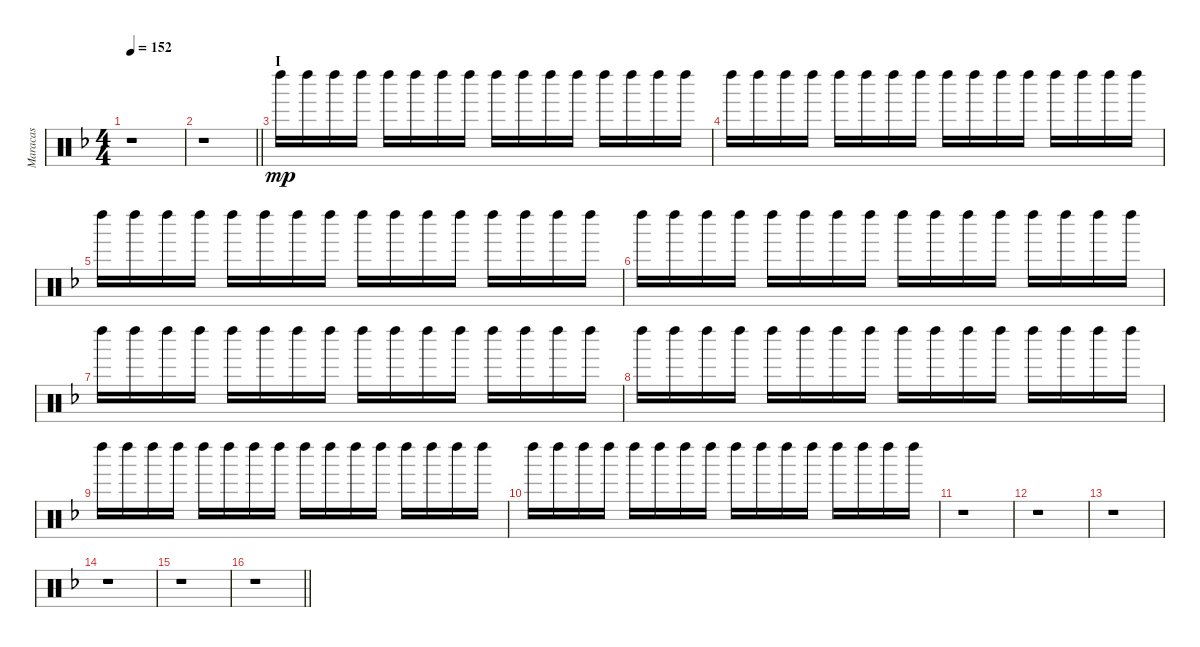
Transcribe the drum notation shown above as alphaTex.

\track ("Maracas" "Maracas") {instrument percussion}
\staff {score}
\articulation defaults
\ts (4 4)
\tempo 152
\clef neutral
\ks f
r.1{dy mp} |
\barLineRight lightlight
r.1 |
\section ("" "I")
"Left Maraca (hit)".16 "Left Maraca (hit)".16 "Left Maraca (hit)".16 "Left Maraca (hit)".16 "Left Maraca (hit)".16 "Left Maraca (hit)".16 "Left Maraca (hit)".16 "Left Maraca (hit)".16 "Left Maraca (hit)".16 "Left Maraca (hit)".16 "Left Maraca (hit)".16 "Left Maraca (hit)".16 "Left Maraca (hit)".16 "Left Maraca (hit)".16 "Left Maraca (hit)".16 "Left Maraca (hit)".16 |
"Left Maraca (hit)".16 "Left Maraca (hit)".16 "Left Maraca (hit)".16 "Left Maraca (hit)".16 "Left Maraca (hit)".16 "Left Maraca (hit)".16 "Left Maraca (hit)".16 "Left Maraca (hit)".16 "Left Maraca (hit)".16 "Left Maraca (hit)".16 "Left Maraca (hit)".16 "Left Maraca (hit)".16 "Left Maraca (hit)".16 "Left Maraca (hit)".16 "Left Maraca (hit)".16 "Left Maraca (hit)".16 |
"Left Maraca (hit)".16 "Left Maraca (hit)".16 "Left Maraca (hit)".16 "Left Maraca (hit)".16 "Left Maraca (hit)".16 "Left Maraca (hit)".16 "Left Maraca (hit)".16 "Left Maraca (hit)".16 "Left Maraca (hit)".16 "Left Maraca (hit)".16 "Left Maraca (hit)".16 "Left Maraca (hit)".16 "Left Maraca (hit)".16 "Left Maraca (hit)".16 "Left Maraca (hit)".16 "Left Maraca (hit)".16 |
"Left Maraca (hit)".16 "Left Maraca (hit)".16 "Left Maraca (hit)".16 "Left Maraca (hit)".16 "Left Maraca (hit)".16 "Left Maraca (hit)".16 "Left Maraca (hit)".16 "Left Maraca (hit)".16 "Left Maraca (hit)".16 "Left Maraca (hit)".16 "Left Maraca (hit)".16 "Left Maraca (hit)".16 "Left Maraca (hit)".16 "Left Maraca (hit)".16 "Left Maraca (hit)".16 "Left Maraca (hit)".16 |
"Left Maraca (hit)".16 "Left Maraca (hit)".16 "Left Maraca (hit)".16 "Left Maraca (hit)".16 "Left Maraca (hit)".16 "Left Maraca (hit)".16 "Left Maraca (hit)".16 "Left Maraca (hit)".16 "Left Maraca (hit)".16 "Left Maraca (hit)".16 "Left Maraca (hit)".16 "Left Maraca (hit)".16 "Left Maraca (hit)".16 "Left Maraca (hit)".16 "Left Maraca (hit)".16 "Left Maraca (hit)".16 |
"Left Maraca (hit)".16 "Left Maraca (hit)".16 "Left Maraca (hit)".16 "Left Maraca (hit)".16 "Left Maraca (hit)".16 "Left Maraca (hit)".16 "Left Maraca (hit)".16 "Left Maraca (hit)".16 "Left Maraca (hit)".16 "Left Maraca (hit)".16 "Left Maraca (hit)".16 "Left Maraca (hit)".16 "Left Maraca (hit)".16 "Left Maraca (hit)".16 "Left Maraca (hit)".16 "Left Maraca (hit)".16 |
"Left Maraca (hit)".16 "Left Maraca (hit)".16 "Left Maraca (hit)".16 "Left Maraca (hit)".16 "Left Maraca (hit)".16 "Left Maraca (hit)".16 "Left Maraca (hit)".16 "Left Maraca (hit)".16 "Left Maraca (hit)".16 "Left Maraca (hit)".16 "Left Maraca (hit)".16 "Left Maraca (hit)".16 "Left Maraca (hit)".16 "Left Maraca (hit)".16 "Left Maraca (hit)".16 "Left Maraca (hit)".16 |
"Left Maraca (hit)".16 "Left Maraca (hit)".16 "Left Maraca (hit)".16 "Left Maraca (hit)".16 "Left Maraca (hit)".16 "Left Maraca (hit)".16 "Left Maraca (hit)".16 "Left Maraca (hit)".16 "Left Maraca (hit)".16 "Left Maraca (hit)".16 "Left Maraca (hit)".16 "Left Maraca (hit)".16 "Left Maraca (hit)".16 "Left Maraca (hit)".16 "Left Maraca (hit)".16 "Left Maraca (hit)".16 |
r.1 |
r.1 |
r.1 |
r.1 |
r.1 |
\barLineRight lightlight
r.1
